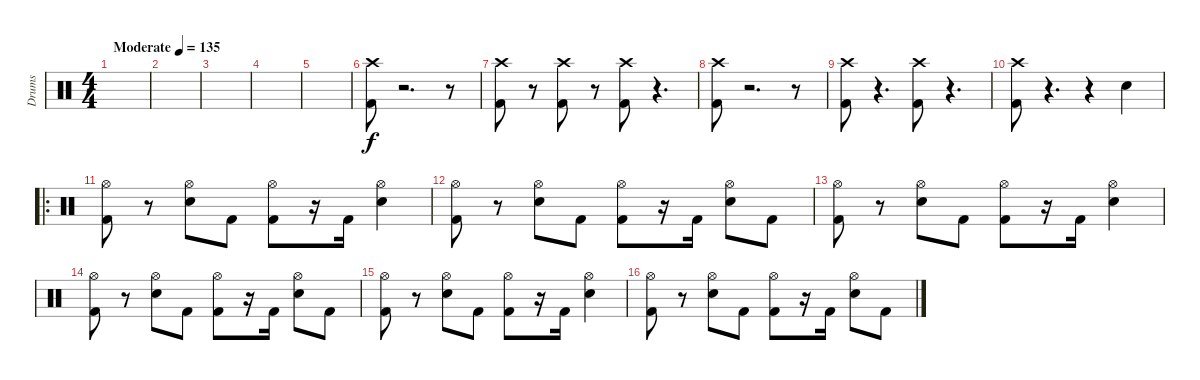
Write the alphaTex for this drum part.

\track ("Drums" "Drums") {instrument percussion}
\staff {score}
\articulation defaults
\ts (4 4)
\tempo (135 "Moderate")
\clef neutral
\ks c
|
|
|
|
|
("Crash high (hit)" "Kick (hit) 2").8 r.2{d} r.8 |
("Crash high (hit)" "Kick (hit) 2").8 r.8 ("Crash high (hit)" "Kick (hit) 2").8 r.8 ("Crash high (hit)" "Kick (hit) 2").8 r.4{d} |
("Crash high (hit)" "Kick (hit) 2").8 r.2{d} r.8 |
("Crash high (hit)" "Kick (hit) 2").8 r.4{d} ("Crash high (hit)" "Kick (hit) 2").8 r.4{d} |
("Crash high (hit)" "Kick (hit) 2").8 r.4{d} r.4 "Snare (hit) 2".4 |
\ro
("Hi-Hat (open)" "Kick (hit) 2").8 r.8 ("Hi-Hat (open)" "Snare (hit) 2").8 "Kick (hit) 2".8 ("Hi-Hat (open)" "Kick (hit) 2").8 r.16 "Kick (hit) 2".16 ("Hi-Hat (open)" "Snare (hit) 2").4 |
("Hi-Hat (open)" "Kick (hit) 2").8 r.8 ("Hi-Hat (open)" "Snare (hit) 2").8 "Kick (hit) 2".8 ("Hi-Hat (open)" "Kick (hit) 2").8 r.16 "Kick (hit) 2".16 ("Hi-Hat (open)" "Snare (hit) 2").8 "Kick (hit) 2".8 |
("Hi-Hat (open)" "Kick (hit) 2").8 r.8 ("Hi-Hat (open)" "Snare (hit) 2").8 "Kick (hit) 2".8 ("Hi-Hat (open)" "Kick (hit) 2").8 r.16 "Kick (hit) 2".16 ("Hi-Hat (open)" "Snare (hit) 2").4 |
("Hi-Hat (open)" "Kick (hit) 2").8 r.8 ("Hi-Hat (open)" "Snare (hit) 2").8 "Kick (hit) 2".8 ("Hi-Hat (open)" "Kick (hit) 2").8 r.16 "Kick (hit) 2".16 ("Hi-Hat (open)" "Snare (hit) 2").8 "Kick (hit) 2".8 |
("Hi-Hat (open)" "Kick (hit) 2").8 r.8 ("Hi-Hat (open)" "Snare (hit) 2").8 "Kick (hit) 2".8 ("Hi-Hat (open)" "Kick (hit) 2").8 r.16 "Kick (hit) 2".16 ("Hi-Hat (open)" "Snare (hit) 2").4 |
("Hi-Hat (open)" "Kick (hit) 2").8 r.8 ("Hi-Hat (open)" "Snare (hit) 2").8 "Kick (hit) 2".8 ("Hi-Hat (open)" "Kick (hit) 2").8 r.16 "Kick (hit) 2".16 ("Hi-Hat (open)" "Snare (hit) 2").8 "Kick (hit) 2".8
